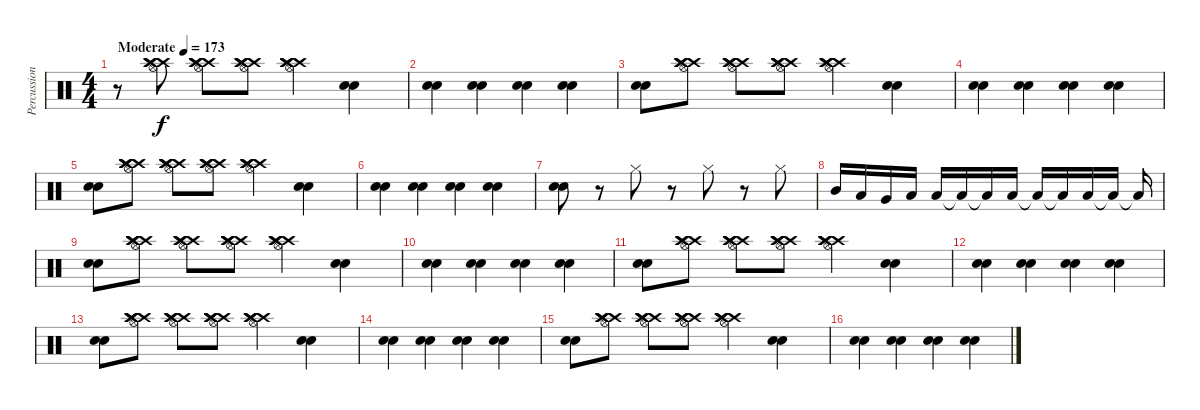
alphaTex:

\track ("Percussion" "Percussion") {instrument percussion}
\staff {score}
\articulation defaults
\ts (4 4)
\tempo (173 "Moderate")
\clef neutral
\ks c
r.8{dy f} ("Hi-Hat (open)" "Crash high (hit)" "Crash high (hit)" "Crash high (hit)" "Crash high (hit)").8 ("Hi-Hat (open)" "Crash high (hit)" "Crash high (hit)" "Crash high (hit)" "Crash high (hit)").8 ("Hi-Hat (open)" "Crash high (hit)" "Crash high (hit)" "Crash high (hit)" "Crash high (hit)").8 ("Hi-Hat (open)" "Crash high (hit)" "Crash high (hit)" "Crash high (hit)" "Crash high (hit)").4 ("Electric Snare (hit)" "Electric Snare (hit)").4 |
("Electric Snare (hit)" "Electric Snare (hit)").4 ("Electric Snare (hit)" "Electric Snare (hit)").4 ("Electric Snare (hit)" "Electric Snare (hit)").4 ("Electric Snare (hit)" "Electric Snare (hit)").4 |
("Electric Snare (hit)" "Electric Snare (hit)").8 ("Hi-Hat (open)" "Crash high (hit)" "Crash high (hit)" "Crash high (hit)" "Crash high (hit)").8 ("Hi-Hat (open)" "Crash high (hit)" "Crash high (hit)" "Crash high (hit)" "Crash high (hit)").8 ("Hi-Hat (open)" "Crash high (hit)" "Crash high (hit)" "Crash high (hit)" "Crash high (hit)").8 ("Hi-Hat (open)" "Crash high (hit)" "Crash high (hit)" "Crash high (hit)" "Crash high (hit)").4 ("Electric Snare (hit)" "Electric Snare (hit)").4 |
("Electric Snare (hit)" "Electric Snare (hit)").4 ("Electric Snare (hit)" "Electric Snare (hit)").4 ("Electric Snare (hit)" "Electric Snare (hit)").4 ("Electric Snare (hit)" "Electric Snare (hit)").4 |
("Electric Snare (hit)" "Electric Snare (hit)").8 ("Hi-Hat (open)" "Crash high (hit)" "Crash high (hit)" "Crash high (hit)" "Crash high (hit)").8 ("Hi-Hat (open)" "Crash high (hit)" "Crash high (hit)" "Crash high (hit)" "Crash high (hit)").8 ("Hi-Hat (open)" "Crash high (hit)" "Crash high (hit)" "Crash high (hit)" "Crash high (hit)").8 ("Hi-Hat (open)" "Crash high (hit)" "Crash high (hit)" "Crash high (hit)" "Crash high (hit)").4 ("Electric Snare (hit)" "Electric Snare (hit)").4 |
("Electric Snare (hit)" "Electric Snare (hit)").4 ("Electric Snare (hit)" "Electric Snare (hit)").4 ("Electric Snare (hit)" "Electric Snare (hit)").4 ("Electric Snare (hit)" "Electric Snare (hit)").4 |
("Electric Snare (hit)" "Electric Snare (hit)").8 r.8 "Hi-Hat (closed)".8 r.8 "Hi-Hat (closed)".8 r.8 "Hi-Hat (closed)".8 |
"Mid Tom (hit)".16 "Low Tom (hit)".16 "Very Low Tom (hit)".16 "Low Floor Tom (hit)".16 "Low Floor Tom (hit)".16 "Low Floor Tom (hit)"{t}.16 "Low Floor Tom (hit)"{t}.16 "Low Floor Tom (hit)".16 "Low Floor Tom (hit)"{t}.16 "Low Floor Tom (hit)"{t}.16 "Low Floor Tom (hit)".16 "Low Floor Tom (hit)"{t}.16 "Low Floor Tom (hit)"{t}.16 |
("Electric Snare (hit)" "Electric Snare (hit)").8 ("Hi-Hat (open)" "Crash high (hit)" "Crash high (hit)" "Crash high (hit)" "Crash high (hit)").8 ("Hi-Hat (open)" "Crash high (hit)" "Crash high (hit)" "Crash high (hit)" "Crash high (hit)").8 ("Hi-Hat (open)" "Crash high (hit)" "Crash high (hit)" "Crash high (hit)" "Crash high (hit)").8 ("Hi-Hat (open)" "Crash high (hit)" "Crash high (hit)" "Crash high (hit)" "Crash high (hit)").4 ("Electric Snare (hit)" "Electric Snare (hit)").4 |
("Electric Snare (hit)" "Electric Snare (hit)").4 ("Electric Snare (hit)" "Electric Snare (hit)").4 ("Electric Snare (hit)" "Electric Snare (hit)").4 ("Electric Snare (hit)" "Electric Snare (hit)").4 |
("Electric Snare (hit)" "Electric Snare (hit)").8 ("Hi-Hat (open)" "Crash high (hit)" "Crash high (hit)" "Crash high (hit)" "Crash high (hit)").8 ("Hi-Hat (open)" "Crash high (hit)" "Crash high (hit)" "Crash high (hit)" "Crash high (hit)").8 ("Hi-Hat (open)" "Crash high (hit)" "Crash high (hit)" "Crash high (hit)" "Crash high (hit)").8 ("Hi-Hat (open)" "Crash high (hit)" "Crash high (hit)" "Crash high (hit)" "Crash high (hit)").4 ("Electric Snare (hit)" "Electric Snare (hit)").4 |
("Electric Snare (hit)" "Electric Snare (hit)").4 ("Electric Snare (hit)" "Electric Snare (hit)").4 ("Electric Snare (hit)" "Electric Snare (hit)").4 ("Electric Snare (hit)" "Electric Snare (hit)").4 |
("Electric Snare (hit)" "Electric Snare (hit)").8 ("Hi-Hat (open)" "Crash high (hit)" "Crash high (hit)" "Crash high (hit)" "Crash high (hit)").8 ("Hi-Hat (open)" "Crash high (hit)" "Crash high (hit)" "Crash high (hit)" "Crash high (hit)").8 ("Hi-Hat (open)" "Crash high (hit)" "Crash high (hit)" "Crash high (hit)" "Crash high (hit)").8 ("Hi-Hat (open)" "Crash high (hit)" "Crash high (hit)" "Crash high (hit)" "Crash high (hit)").4 ("Electric Snare (hit)" "Electric Snare (hit)").4 |
("Electric Snare (hit)" "Electric Snare (hit)").4 ("Electric Snare (hit)" "Electric Snare (hit)").4 ("Electric Snare (hit)" "Electric Snare (hit)").4 ("Electric Snare (hit)" "Electric Snare (hit)").4 |
("Electric Snare (hit)" "Electric Snare (hit)").8 ("Hi-Hat (open)" "Crash high (hit)" "Crash high (hit)" "Crash high (hit)" "Crash high (hit)").8 ("Hi-Hat (open)" "Crash high (hit)" "Crash high (hit)" "Crash high (hit)" "Crash high (hit)").8 ("Hi-Hat (open)" "Crash high (hit)" "Crash high (hit)" "Crash high (hit)" "Crash high (hit)").8 ("Hi-Hat (open)" "Crash high (hit)" "Crash high (hit)" "Crash high (hit)" "Crash high (hit)").4 ("Electric Snare (hit)" "Electric Snare (hit)").4 |
("Electric Snare (hit)" "Electric Snare (hit)").4 ("Electric Snare (hit)" "Electric Snare (hit)").4 ("Electric Snare (hit)" "Electric Snare (hit)").4 ("Electric Snare (hit)" "Electric Snare (hit)").4
